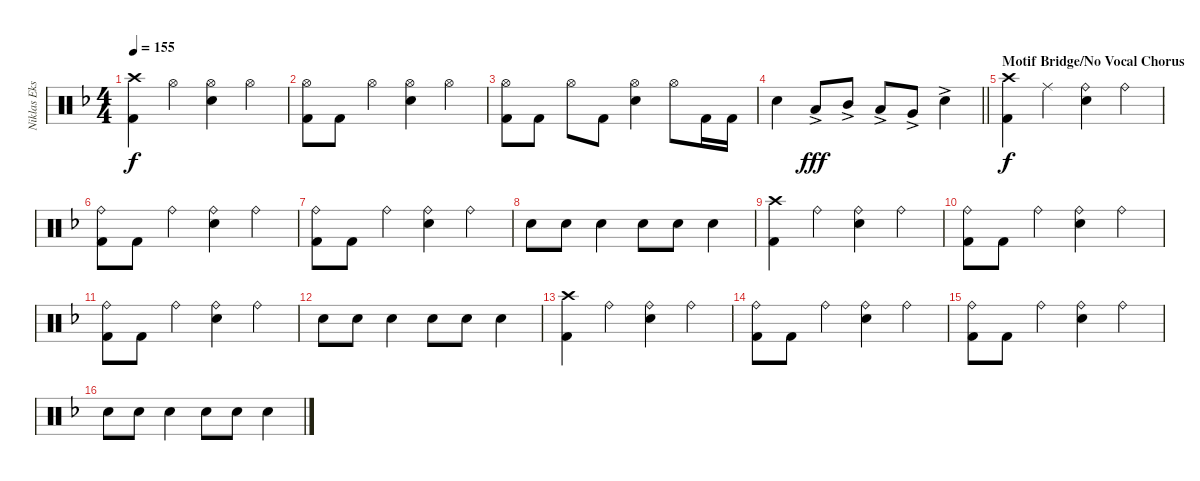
\track ("Niklas Ekstrand" "Niklas Eks") {instrument percussion}
\staff {score}
\articulation defaults
\ts (4 4)
\tempo 155
\clef neutral
\ks dminor
("Crash high (hit)" "Kick (hit) 2").4{dy f} "Hi-Hat (open)".4 ("Hi-Hat (open)" "Snare (hit) 2").4 "Hi-Hat (open)".4 |
("Hi-Hat (open)" "Kick (hit) 2").8 "Kick (hit) 2".8 "Hi-Hat (open)".4 ("Hi-Hat (open)" "Snare (hit) 2").4 "Hi-Hat (open)".4 |
("Hi-Hat (open)" "Kick (hit) 2").8 "Kick (hit) 2".8 "Hi-Hat (open)".8 "Kick (hit) 2".8 ("Hi-Hat (open)" "Snare (hit) 2").4 "Hi-Hat (open)".8 "Kick (hit) 2".16 "Kick (hit) 2".16 |
\barLineRight lightlight "Snare (hit) 2".4 "Low Tom (hit)"{ac}.8{dy fff} "Mid Tom (hit)"{ac}.8 "Low Tom (hit)"{ac}.8 "Very Low Tom (hit)"{ac}.8 "Snare (hit) 2"{ac}.4
|
\section ("" "Motif Bridge/No Vocal Chorus")
("Crash high (hit)" "Kick (hit) 2").4{dy f} "Ride (middle)".4 ("Ride (bell)" "Snare (hit) 2").4 "Ride (bell)".4 |
("Ride (bell)" "Kick (hit) 2").8 "Kick (hit) 2".8 "Ride (bell)".4 ("Ride (bell)" "Snare (hit) 2").4 "Ride (bell)".4 |
("Ride (bell)" "Kick (hit) 2").8 "Kick (hit) 2".8 "Ride (bell)".4 ("Ride (bell)" "Snare (hit) 2").4 "Ride (bell)".4 |
"Snare (hit) 2".8 "Snare (hit) 2".8 "Snare (hit) 2".4 "Snare (hit) 2".8 "Snare (hit) 2".8 "Snare (hit) 2".4 |
("Crash high (hit)" "Kick (hit) 2").4 "Ride (bell)".4 ("Ride (bell)" "Snare (hit) 2").4 "Ride (bell)".4 |
("Ride (bell)" "Kick (hit) 2").8 "Kick (hit) 2".8 "Ride (bell)".4 ("Ride (bell)" "Snare (hit) 2").4 "Ride (bell)".4 |
("Ride (bell)" "Kick (hit) 2").8 "Kick (hit) 2".8 "Ride (bell)".4 ("Ride (bell)" "Snare (hit) 2").4 "Ride (bell)".4 |
"Snare (hit) 2".8 "Snare (hit) 2".8 "Snare (hit) 2".4 "Snare (hit) 2".8 "Snare (hit) 2".8 "Snare (hit) 2".4 |
("Crash high (hit)" "Kick (hit) 2").4 "Ride (bell)".4 ("Ride (bell)" "Snare (hit) 2").4 "Ride (bell)".4 |
("Ride (bell)" "Kick (hit) 2").8 "Kick (hit) 2".8 "Ride (bell)".4 ("Ride (bell)" "Snare (hit) 2").4 "Ride (bell)".4 |
("Ride (bell)" "Kick (hit) 2").8 "Kick (hit) 2".8 "Ride (bell)".4 ("Ride (bell)" "Snare (hit) 2").4 "Ride (bell)".4 |
"Snare (hit) 2".8 "Snare (hit) 2".8 "Snare (hit) 2".4 "Snare (hit) 2".8 "Snare (hit) 2".8 "Snare (hit) 2".4
